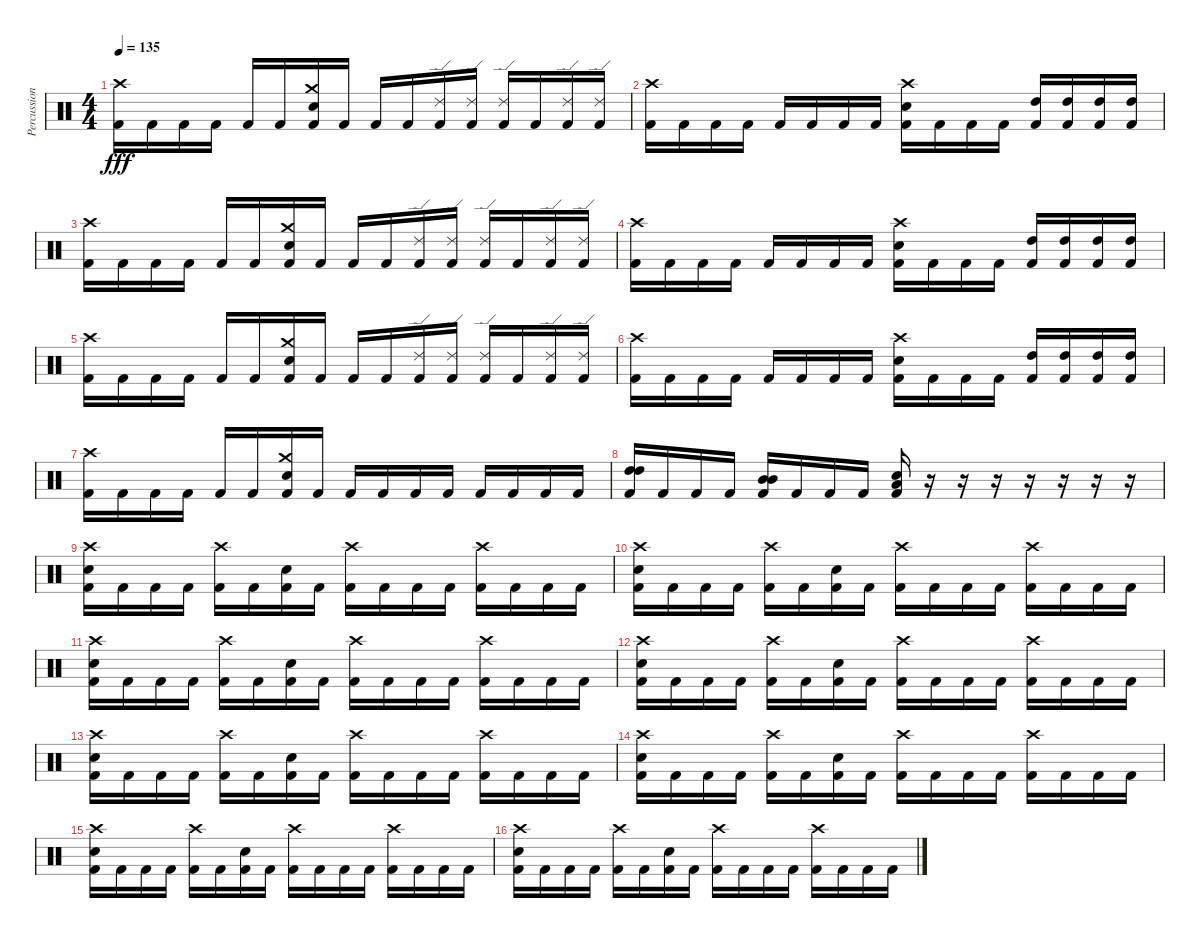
\track ("Percussion" "Percussion") {instrument percussion}
\staff {score}
\articulation defaults
\ts (4 4)
\tempo 135
\clef neutral
\ks c
("Crash high (hit)" "Kick (hit) 2").16{dy fff} "Kick (hit) 2".16 "Kick (hit) 2".16 "Kick (hit) 2".16 "Kick (hit) 2".16 "Kick (hit) 2".16 ("Crash medium (hit)" "Snare (hit) 2" "Kick (hit) 2").16 "Kick (hit) 2".16 "Kick (hit) 2".16 "Kick (hit) 2".16 ("Ride (edge) 2" "Kick (hit) 2").16 ("Ride (edge) 2" "Kick (hit) 2").16 ("Ride (edge) 2" "Kick (hit) 2").16 "Kick (hit) 2".16 ("Ride (edge) 2" "Kick (hit) 2").16 ("Ride (edge) 2" "Kick (hit) 2").16 |
("Crash high (hit)" "Kick (hit) 2").16 "Kick (hit) 2".16 "Kick (hit) 2".16 "Kick (hit) 2".16 "Kick (hit) 2".16 "Kick (hit) 2".16 "Kick (hit) 2".16 "Kick (hit) 2".16 ("Crash high (hit)" "Snare (hit) 2" "Kick (hit) 2").16 "Kick (hit) 2".16 "Kick (hit) 2".16 "Kick (hit) 2".16 ("High Tom (hit)" "Kick (hit) 2").16 ("High Tom (hit)" "Kick (hit) 2").16 ("High Tom (hit)" "Kick (hit) 2").16 ("High Tom (hit)" "Kick (hit) 2").16 |
("Crash high (hit)" "Kick (hit) 2").16 "Kick (hit) 2".16 "Kick (hit) 2".16 "Kick (hit) 2".16 "Kick (hit) 2".16 "Kick (hit) 2".16 ("Crash medium (hit)" "Snare (hit) 2" "Kick (hit) 2").16 "Kick (hit) 2".16 "Kick (hit) 2".16 "Kick (hit) 2".16 ("Ride (edge) 2" "Kick (hit) 2").16 ("Ride (edge) 2" "Kick (hit) 2").16 ("Ride (edge) 2" "Kick (hit) 2").16 "Kick (hit) 2".16 ("Ride (edge) 2" "Kick (hit) 2").16 ("Ride (edge) 2" "Kick (hit) 2").16 |
("Crash high (hit)" "Kick (hit) 2").16 "Kick (hit) 2".16 "Kick (hit) 2".16 "Kick (hit) 2".16 "Kick (hit) 2".16 "Kick (hit) 2".16 "Kick (hit) 2".16 "Kick (hit) 2".16 ("Crash high (hit)" "Snare (hit) 2" "Kick (hit) 2").16 "Kick (hit) 2".16 "Kick (hit) 2".16 "Kick (hit) 2".16 ("High Tom (hit)" "Kick (hit) 2").16 ("High Tom (hit)" "Kick (hit) 2").16 ("High Tom (hit)" "Kick (hit) 2").16 ("High Tom (hit)" "Kick (hit) 2").16 |
("Crash high (hit)" "Kick (hit) 2").16 "Kick (hit) 2".16 "Kick (hit) 2".16 "Kick (hit) 2".16 "Kick (hit) 2".16 "Kick (hit) 2".16 ("Crash medium (hit)" "Snare (hit) 2" "Kick (hit) 2").16 "Kick (hit) 2".16 "Kick (hit) 2".16 "Kick (hit) 2".16 ("Ride (edge) 2" "Kick (hit) 2").16 ("Ride (edge) 2" "Kick (hit) 2").16 ("Ride (edge) 2" "Kick (hit) 2").16 "Kick (hit) 2".16 ("Ride (edge) 2" "Kick (hit) 2").16 ("Ride (edge) 2" "Kick (hit) 2").16 |
("Crash high (hit)" "Kick (hit) 2").16 "Kick (hit) 2".16 "Kick (hit) 2".16 "Kick (hit) 2".16 "Kick (hit) 2".16 "Kick (hit) 2".16 "Kick (hit) 2".16 "Kick (hit) 2".16 ("Crash high (hit)" "Snare (hit) 2" "Kick (hit) 2").16 "Kick (hit) 2".16 "Kick (hit) 2".16 "Kick (hit) 2".16 ("High Tom (hit)" "Kick (hit) 2").16 ("High Tom (hit)" "Kick (hit) 2").16 ("High Tom (hit)" "Kick (hit) 2").16 ("High Tom (hit)" "Kick (hit) 2").16 |
("Crash high (hit)" "Kick (hit) 2").16 "Kick (hit) 2".16 "Kick (hit) 2".16 "Kick (hit) 2".16 "Kick (hit) 2".16 "Kick (hit) 2".16 ("Crash medium (hit)" "Snare (hit) 2" "Kick (hit) 2").16 "Kick (hit) 2".16 "Kick (hit) 2".16 "Kick (hit) 2".16 "Kick (hit) 2".16 "Kick (hit) 2".16 "Kick (hit) 2".16 "Kick (hit) 2".16 "Kick (hit) 2".16 "Kick (hit) 2".16 |
("High Tom (hit)" "High Tom (hit)" "Kick (hit) 2").16 "Kick (hit) 2".16 "Kick (hit) 2".16 "Kick (hit) 2".16 ("Mid Tom (hit)" "Mid Tom (hit)" "Kick (hit) 2").16 "Kick (hit) 2".16 "Kick (hit) 2".16 "Kick (hit) 2".16 ("Low Floor Tom (hit)" "Snare (hit) 2" "Kick (hit) 2").16 r.16 r.16 r.16 r.16 r.16 r.16 r.16 |
("Crash high (hit)" "Snare (hit) 2" "Kick (hit) 2").16 "Kick (hit) 2".16 "Kick (hit) 2".16 "Kick (hit) 2".16 ("Crash high (hit)" "Kick (hit) 2").16 "Kick (hit) 2".16 ("Snare (hit) 2" "Kick (hit) 2").16 "Kick (hit) 2".16 ("Crash high (hit)" "Kick (hit) 2").16 "Kick (hit) 2".16 "Kick (hit) 2".16 "Kick (hit) 2".16 ("Crash high (hit)" "Kick (hit) 2").16 "Kick (hit) 2".16 "Kick (hit) 2".16 "Kick (hit) 2".16 |
("Crash high (hit)" "Snare (hit) 2" "Kick (hit) 2").16 "Kick (hit) 2".16 "Kick (hit) 2".16 "Kick (hit) 2".16 ("Crash high (hit)" "Kick (hit) 2").16 "Kick (hit) 2".16 ("Snare (hit) 2" "Kick (hit) 2").16 "Kick (hit) 2".16 ("Crash high (hit)" "Kick (hit) 2").16 "Kick (hit) 2".16 "Kick (hit) 2".16 "Kick (hit) 2".16 ("Crash high (hit)" "Kick (hit) 2").16 "Kick (hit) 2".16 "Kick (hit) 2".16 "Kick (hit) 2".16 |
("Crash high (hit)" "Snare (hit) 2" "Kick (hit) 2").16 "Kick (hit) 2".16 "Kick (hit) 2".16 "Kick (hit) 2".16 ("Crash high (hit)" "Kick (hit) 2").16 "Kick (hit) 2".16 ("Snare (hit) 2" "Kick (hit) 2").16 "Kick (hit) 2".16 ("Crash high (hit)" "Kick (hit) 2").16 "Kick (hit) 2".16 "Kick (hit) 2".16 "Kick (hit) 2".16 ("Crash high (hit)" "Kick (hit) 2").16 "Kick (hit) 2".16 "Kick (hit) 2".16 "Kick (hit) 2".16 |
("Crash high (hit)" "Snare (hit) 2" "Kick (hit) 2").16 "Kick (hit) 2".16 "Kick (hit) 2".16 "Kick (hit) 2".16 ("Crash high (hit)" "Kick (hit) 2").16 "Kick (hit) 2".16 ("Snare (hit) 2" "Kick (hit) 2").16 "Kick (hit) 2".16 ("Crash high (hit)" "Kick (hit) 2").16 "Kick (hit) 2".16 "Kick (hit) 2".16 "Kick (hit) 2".16 ("Crash high (hit)" "Kick (hit) 2").16 "Kick (hit) 2".16 "Kick (hit) 2".16 "Kick (hit) 2".16 |
("Crash high (hit)" "Snare (hit) 2" "Kick (hit) 2").16 "Kick (hit) 2".16 "Kick (hit) 2".16 "Kick (hit) 2".16 ("Crash high (hit)" "Kick (hit) 2").16 "Kick (hit) 2".16 ("Snare (hit) 2" "Kick (hit) 2").16 "Kick (hit) 2".16 ("Crash high (hit)" "Kick (hit) 2").16 "Kick (hit) 2".16 "Kick (hit) 2".16 "Kick (hit) 2".16 ("Crash high (hit)" "Kick (hit) 2").16 "Kick (hit) 2".16 "Kick (hit) 2".16 "Kick (hit) 2".16 |
("Crash high (hit)" "Snare (hit) 2" "Kick (hit) 2").16 "Kick (hit) 2".16 "Kick (hit) 2".16 "Kick (hit) 2".16 ("Crash high (hit)" "Kick (hit) 2").16 "Kick (hit) 2".16 ("Snare (hit) 2" "Kick (hit) 2").16 "Kick (hit) 2".16 ("Crash high (hit)" "Kick (hit) 2").16 "Kick (hit) 2".16 "Kick (hit) 2".16 "Kick (hit) 2".16 ("Crash high (hit)" "Kick (hit) 2").16 "Kick (hit) 2".16 "Kick (hit) 2".16 "Kick (hit) 2".16 |
("Crash high (hit)" "Snare (hit) 2" "Kick (hit) 2").16 "Kick (hit) 2".16 "Kick (hit) 2".16 "Kick (hit) 2".16 ("Crash high (hit)" "Kick (hit) 2").16 "Kick (hit) 2".16 ("Snare (hit) 2" "Kick (hit) 2").16 "Kick (hit) 2".16 ("Crash high (hit)" "Kick (hit) 2").16 "Kick (hit) 2".16 "Kick (hit) 2".16 "Kick (hit) 2".16 ("Crash high (hit)" "Kick (hit) 2").16 "Kick (hit) 2".16 "Kick (hit) 2".16 "Kick (hit) 2".16 |
("Crash high (hit)" "Snare (hit) 2" "Kick (hit) 2").16 "Kick (hit) 2".16 "Kick (hit) 2".16 "Kick (hit) 2".16 ("Crash high (hit)" "Kick (hit) 2").16 "Kick (hit) 2".16 ("Snare (hit) 2" "Kick (hit) 2").16 "Kick (hit) 2".16 ("Crash high (hit)" "Kick (hit) 2").16 "Kick (hit) 2".16 "Kick (hit) 2".16 "Kick (hit) 2".16 ("Crash high (hit)" "Kick (hit) 2").16 "Kick (hit) 2".16 "Kick (hit) 2".16 "Kick (hit) 2".16
